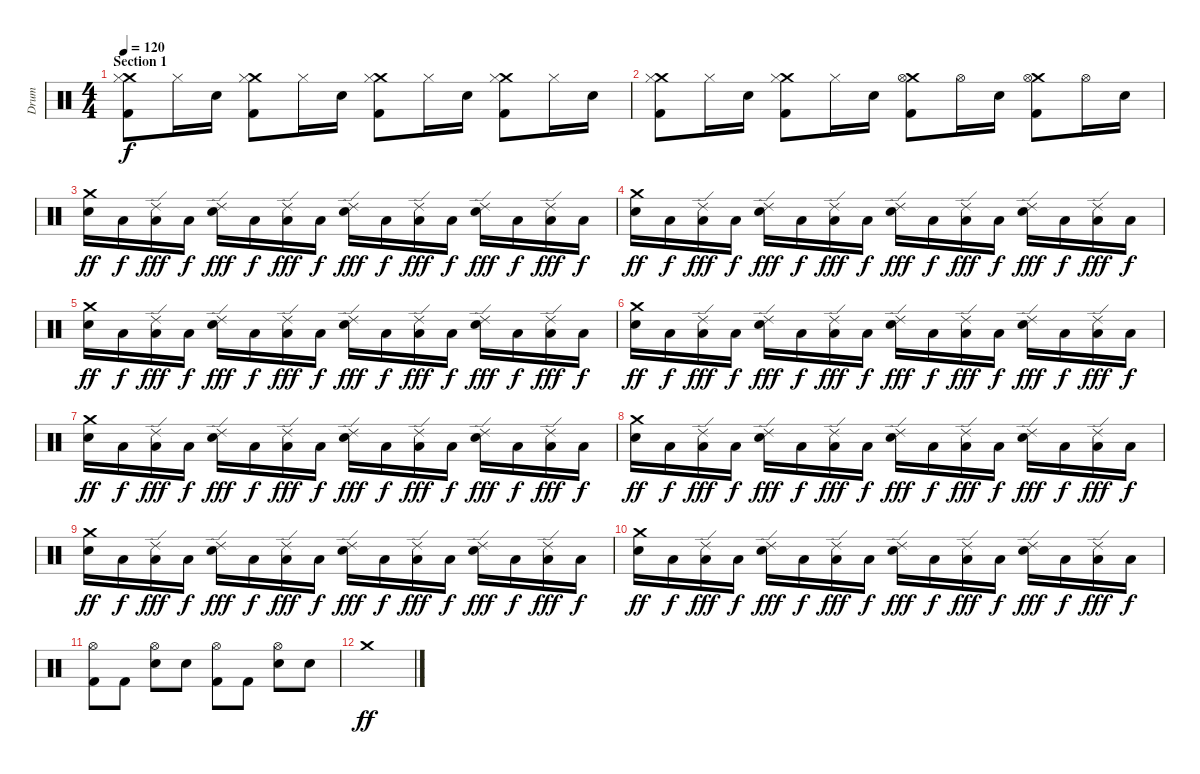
\track ("Drum" "Drum") {instrument percussion}
\staff {score}
\articulation defaults
\ts (4 4)
\section ("" "Section 1")
\tempo 120
\clef neutral
\ks c
("Crash medium (hit)" "Kick (hit) 2" "Hi-Hat (closed)").8{dy f} "Hi-Hat (closed)".16 "Electric Snare (hit)".16 ("Crash medium (hit)" "Kick (hit) 2" "Hi-Hat (closed)").8 "Hi-Hat (closed)".16 "Electric Snare (hit)".16 ("Crash medium (hit)" "Kick (hit) 2" "Hi-Hat (closed)").8 "Hi-Hat (closed)".16 "Electric Snare (hit)".16 ("Crash medium (hit)" "Kick (hit) 2" "Hi-Hat (closed)").8 "Hi-Hat (closed)".16 "Electric Snare (hit)".16 |
("Crash medium (hit)" "Kick (hit) 2" "Hi-Hat (closed)").8 "Hi-Hat (closed)".16 "Electric Snare (hit)".16 ("Crash medium (hit)" "Kick (hit) 2" "Hi-Hat (closed)").8 "Hi-Hat (closed)".16 "Electric Snare (hit)".16 ("Crash medium (hit)" "Kick (hit) 2" "Hi-Hat (open)").8 "Hi-Hat (open)".16 "Electric Snare (hit)".16 ("Crash medium (hit)" "Kick (hit) 2" "Hi-Hat (open)").8 "Hi-Hat (open)".16 "Electric Snare (hit)".16 |
("Crash medium (hit)" "Electric Snare (hit)").16{dy ff} "Low Tom (hit)".16{dy f} ("Ride (edge) 2" "Low Tom (hit)").16{dy fff} "Low Tom (hit)".16{dy f} ("Ride (edge) 2" "Electric Snare (hit)").16{dy fff} "Low Tom (hit)".16{dy f} ("Ride (edge) 2" "Low Tom (hit)").16{dy fff} "Low Tom (hit)".16{dy f} ("Ride (edge) 2" "Electric Snare (hit)").16{dy fff} "Low Tom (hit)".16{dy f} ("Ride (edge) 2" "Low Tom (hit)").16{dy fff} "Low Tom (hit)".16{dy f} ("Ride (edge) 2" "Electric Snare (hit)").16{dy fff} "Low Tom (hit)".16{dy f} ("Ride (edge) 2" "Low Tom (hit)").16{dy fff} "Low Tom (hit)".16{dy f} |
("Crash medium (hit)" "Electric Snare (hit)").16{dy ff} "Low Tom (hit)".16{dy f} ("Ride (edge) 2" "Low Tom (hit)").16{dy fff} "Low Tom (hit)".16{dy f} ("Ride (edge) 2" "Electric Snare (hit)").16{dy fff} "Low Tom (hit)".16{dy f} ("Ride (edge) 2" "Low Tom (hit)").16{dy fff} "Low Tom (hit)".16{dy f} ("Ride (edge) 2" "Electric Snare (hit)").16{dy fff} "Low Tom (hit)".16{dy f} ("Ride (edge) 2" "Low Tom (hit)").16{dy fff} "Low Tom (hit)".16{dy f} ("Ride (edge) 2" "Electric Snare (hit)").16{dy fff} "Low Tom (hit)".16{dy f} ("Ride (edge) 2" "Low Tom (hit)").16{dy fff} "Low Tom (hit)".16{dy f} |
("Crash medium (hit)" "Electric Snare (hit)").16{dy ff} "Low Tom (hit)".16{dy f} ("Ride (edge) 2" "Low Tom (hit)").16{dy fff} "Low Tom (hit)".16{dy f} ("Ride (edge) 2" "Electric Snare (hit)").16{dy fff} "Low Tom (hit)".16{dy f} ("Ride (edge) 2" "Low Tom (hit)").16{dy fff} "Low Tom (hit)".16{dy f} ("Ride (edge) 2" "Electric Snare (hit)").16{dy fff} "Low Tom (hit)".16{dy f} ("Ride (edge) 2" "Low Tom (hit)").16{dy fff} "Low Tom (hit)".16{dy f} ("Ride (edge) 2" "Electric Snare (hit)").16{dy fff} "Low Tom (hit)".16{dy f} ("Ride (edge) 2" "Low Tom (hit)").16{dy fff} "Low Tom (hit)".16{dy f} |
("Crash medium (hit)" "Electric Snare (hit)").16{dy ff} "Low Tom (hit)".16{dy f} ("Ride (edge) 2" "Low Tom (hit)").16{dy fff} "Low Tom (hit)".16{dy f} ("Ride (edge) 2" "Electric Snare (hit)").16{dy fff} "Low Tom (hit)".16{dy f} ("Ride (edge) 2" "Low Tom (hit)").16{dy fff} "Low Tom (hit)".16{dy f} ("Ride (edge) 2" "Electric Snare (hit)").16{dy fff} "Low Tom (hit)".16{dy f} ("Ride (edge) 2" "Low Tom (hit)").16{dy fff} "Low Tom (hit)".16{dy f} ("Ride (edge) 2" "Electric Snare (hit)").16{dy fff} "Low Tom (hit)".16{dy f} ("Ride (edge) 2" "Low Tom (hit)").16{dy fff} "Low Tom (hit)".16{dy f} |
("Crash medium (hit)" "Electric Snare (hit)").16{dy ff} "Low Tom (hit)".16{dy f} ("Ride (edge) 2" "Low Tom (hit)").16{dy fff} "Low Tom (hit)".16{dy f} ("Ride (edge) 2" "Electric Snare (hit)").16{dy fff} "Low Tom (hit)".16{dy f} ("Ride (edge) 2" "Low Tom (hit)").16{dy fff} "Low Tom (hit)".16{dy f} ("Ride (edge) 2" "Electric Snare (hit)").16{dy fff} "Low Tom (hit)".16{dy f} ("Ride (edge) 2" "Low Tom (hit)").16{dy fff} "Low Tom (hit)".16{dy f} ("Ride (edge) 2" "Electric Snare (hit)").16{dy fff} "Low Tom (hit)".16{dy f} ("Ride (edge) 2" "Low Tom (hit)").16{dy fff} "Low Tom (hit)".16{dy f} |
("Crash medium (hit)" "Electric Snare (hit)").16{dy ff} "Low Tom (hit)".16{dy f} ("Ride (edge) 2" "Low Tom (hit)").16{dy fff} "Low Tom (hit)".16{dy f} ("Ride (edge) 2" "Electric Snare (hit)").16{dy fff} "Low Tom (hit)".16{dy f} ("Ride (edge) 2" "Low Tom (hit)").16{dy fff} "Low Tom (hit)".16{dy f} ("Ride (edge) 2" "Electric Snare (hit)").16{dy fff} "Low Tom (hit)".16{dy f} ("Ride (edge) 2" "Low Tom (hit)").16{dy fff} "Low Tom (hit)".16{dy f} ("Ride (edge) 2" "Electric Snare (hit)").16{dy fff} "Low Tom (hit)".16{dy f} ("Ride (edge) 2" "Low Tom (hit)").16{dy fff} "Low Tom (hit)".16{dy f} |
("Crash medium (hit)" "Electric Snare (hit)").16{dy ff} "Low Tom (hit)".16{dy f} ("Ride (edge) 2" "Low Tom (hit)").16{dy fff} "Low Tom (hit)".16{dy f} ("Ride (edge) 2" "Electric Snare (hit)").16{dy fff} "Low Tom (hit)".16{dy f} ("Ride (edge) 2" "Low Tom (hit)").16{dy fff} "Low Tom (hit)".16{dy f} ("Ride (edge) 2" "Electric Snare (hit)").16{dy fff} "Low Tom (hit)".16{dy f} ("Ride (edge) 2" "Low Tom (hit)").16{dy fff} "Low Tom (hit)".16{dy f} ("Ride (edge) 2" "Electric Snare (hit)").16{dy fff} "Low Tom (hit)".16{dy f} ("Ride (edge) 2" "Low Tom (hit)").16{dy fff} "Low Tom (hit)".16{dy f} |
("Crash medium (hit)" "Electric Snare (hit)").16{dy ff} "Low Tom (hit)".16{dy f} ("Ride (edge) 2" "Low Tom (hit)").16{dy fff} "Low Tom (hit)".16{dy f} ("Ride (edge) 2" "Electric Snare (hit)").16{dy fff} "Low Tom (hit)".16{dy f} ("Ride (edge) 2" "Low Tom (hit)").16{dy fff} "Low Tom (hit)".16{dy f} ("Ride (edge) 2" "Electric Snare (hit)").16{dy fff} "Low Tom (hit)".16{dy f} ("Ride (edge) 2" "Low Tom (hit)").16{dy fff} "Low Tom (hit)".16{dy f} ("Ride (edge) 2" "Electric Snare (hit)").16{dy fff} "Low Tom (hit)".16{dy f} ("Ride (edge) 2" "Low Tom (hit)").16{dy fff} "Low Tom (hit)".16{dy f} |
("Hi-Hat (open)" "Kick (hit) 2").8 "Kick (hit) 2".8 ("Hi-Hat (open)" "Electric Snare (hit)").8 "Electric Snare (hit)".8 ("Hi-Hat (open)" "Kick (hit) 2").8 "Kick (hit) 2".8 ("Hi-Hat (open)" "Electric Snare (hit)").8 "Electric Snare (hit)".8 |
"Crash medium (hit)".1{dy ff}
